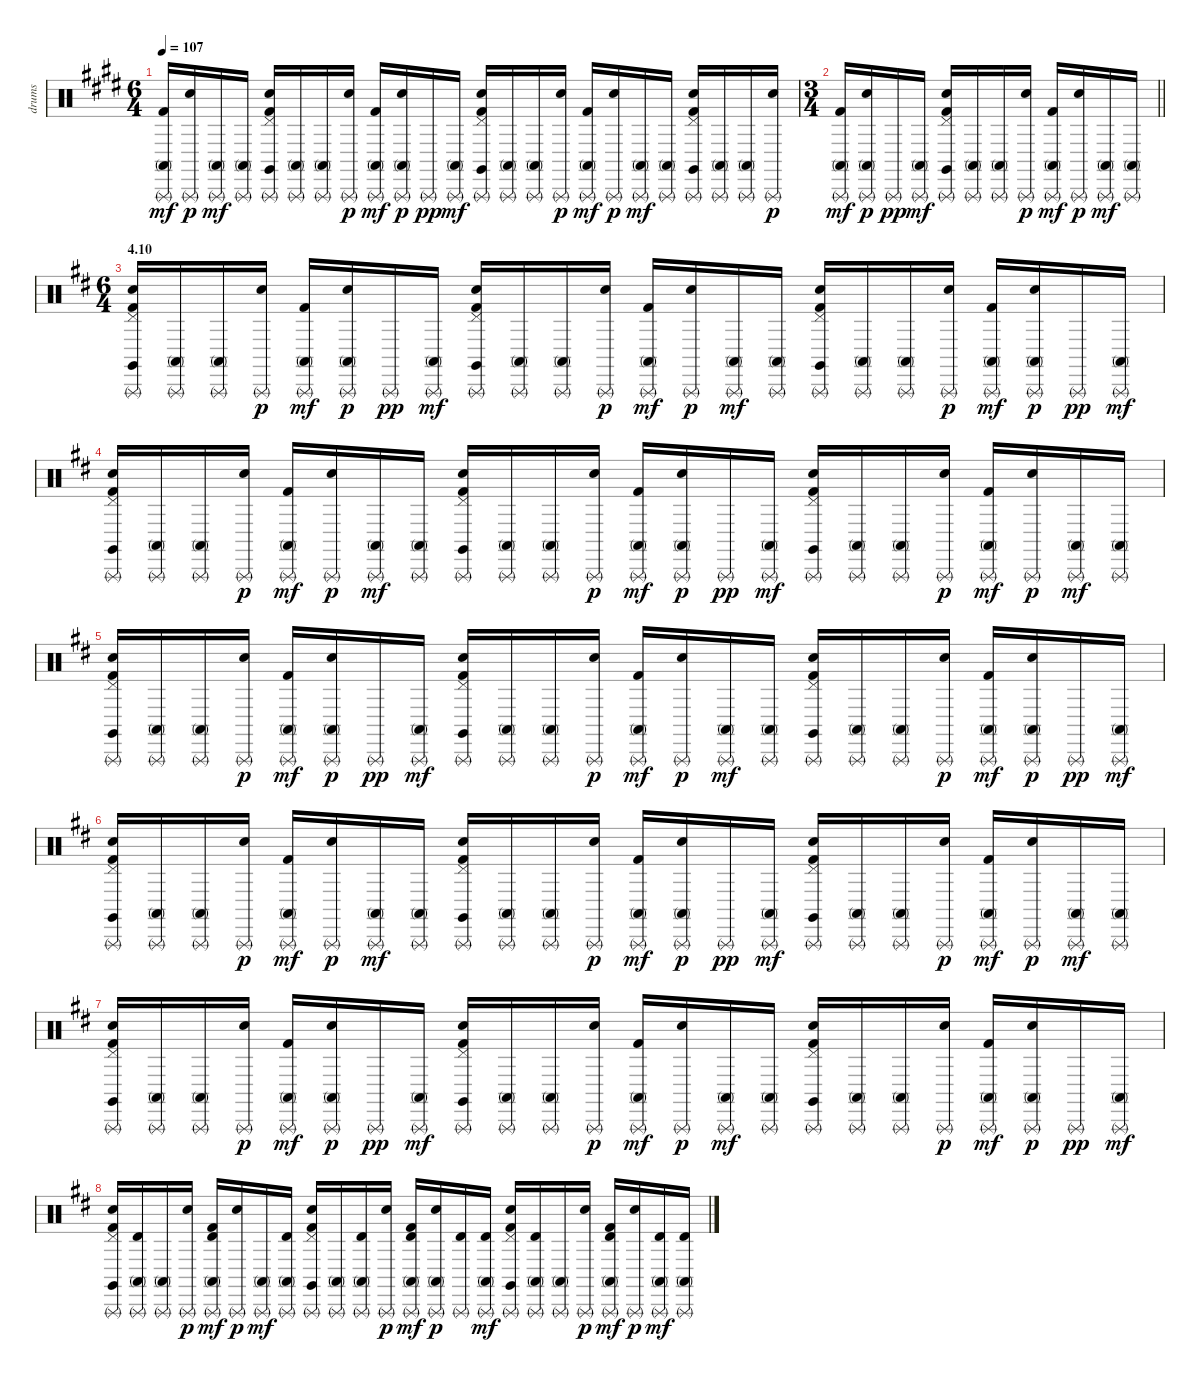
\track ("drums" "drums") {instrument percussion}
\staff {score}
\articulation defaults
\ts (6 4)
\tempo 107
\clef neutral
\ks e
("Triangle (rnute)" "Conga high (mute)" "Kick (hit) 2").16{dy mf} ("Triangle (rnute)" "Electric Snare (hit)").16{dy p} ("Triangle (rnute)" "Conga high (mute)").16{dy mf} ("Triangle (rnute)" "Conga high (mute)").16 ("Triangle (rnute)" "Claves (hit)" "Pedal Hi-Hat (hit)" "Electric Snare (hit)" "Kick (hit) 2").16 ("Triangle (rnute)" "Conga high (mute)").16 ("Triangle (rnute)" "Conga high (mute)").16 ("Triangle (rnute)" "Electric Snare (hit)").16{dy p} ("Triangle (rnute)" "Conga high (mute)" "Kick (hit) 2").16{dy mf} ("Triangle (rnute)" "Conga high (mute)" "Electric Snare (hit)").16{dy p} "Triangle (rnute)".16{dy pp} ("Triangle (rnute)" "Conga high (mute)").16{dy mf} ("Triangle (rnute)" "Claves (hit)" "Pedal Hi-Hat (hit)" "Electric Snare (hit)" "Kick (hit) 2").16 ("Triangle (rnute)" "Conga high (mute)").16 ("Triangle (rnute)" "Conga high (mute)").16 ("Triangle (rnute)" "Electric Snare (hit)").16{dy p} ("Triangle (rnute)" "Conga high (mute)" "Kick (hit) 2").16{dy mf} ("Triangle (rnute)" "Electric Snare (hit)").16{dy p} ("Triangle (rnute)" "Conga high (mute)").16{dy mf} ("Triangle (rnute)" "Conga high (mute)").16 ("Triangle (rnute)" "Claves (hit)" "Pedal Hi-Hat (hit)" "Electric Snare (hit)" "Kick (hit) 2").16 ("Triangle (rnute)" "Conga high (mute)").16 ("Triangle (rnute)" "Conga high (mute)").16 ("Triangle (rnute)" "Electric Snare (hit)").16{dy p} |
\ts (3 4)
\barLineRight lightlight
("Triangle (rnute)" "Conga high (mute)" "Kick (hit) 2").16{dy mf} ("Triangle (rnute)" "Conga high (mute)" "Electric Snare (hit)").16{dy p} "Triangle (rnute)".16{dy pp} ("Triangle (rnute)" "Conga high (mute)").16{dy mf} ("Triangle (rnute)" "Claves (hit)" "Pedal Hi-Hat (hit)" "Electric Snare (hit)" "Kick (hit) 2").16 ("Triangle (rnute)" "Conga high (mute)").16 ("Triangle (rnute)" "Conga high (mute)").16 ("Triangle (rnute)" "Electric Snare (hit)").16{dy p} ("Triangle (rnute)" "Conga high (mute)" "Kick (hit) 2").16{dy mf} ("Triangle (rnute)" "Electric Snare (hit)").16{dy p} ("Triangle (rnute)" "Conga high (mute)").16{dy mf} ("Triangle (rnute)" "Conga high (mute)").16 |
\ts (6 4)
\section ("" "4.10")
\ks d
("Triangle (rnute)" "Claves (hit)" "Pedal Hi-Hat (hit)" "Electric Snare (hit)" "Kick (hit) 2").16 ("Triangle (rnute)" "Conga high (mute)").16 ("Triangle (rnute)" "Conga high (mute)").16 ("Triangle (rnute)" "Electric Snare (hit)").16{dy p} ("Triangle (rnute)" "Conga high (mute)" "Kick (hit) 2").16{dy mf} ("Triangle (rnute)" "Conga high (mute)" "Electric Snare (hit)").16{dy p} "Triangle (rnute)".16{dy pp} ("Triangle (rnute)" "Conga high (mute)").16{dy mf} ("Triangle (rnute)" "Claves (hit)" "Pedal Hi-Hat (hit)" "Electric Snare (hit)" "Kick (hit) 2").16 ("Triangle (rnute)" "Conga high (mute)").16 ("Triangle (rnute)" "Conga high (mute)").16 ("Triangle (rnute)" "Electric Snare (hit)").16{dy p} ("Triangle (rnute)" "Conga high (mute)" "Kick (hit) 2").16{dy mf} ("Triangle (rnute)" "Electric Snare (hit)").16{dy p} ("Triangle (rnute)" "Conga high (mute)").16{dy mf} ("Triangle (rnute)" "Conga high (mute)").16 ("Triangle (rnute)" "Claves (hit)" "Pedal Hi-Hat (hit)" "Electric Snare (hit)" "Kick (hit) 2").16 ("Triangle (rnute)" "Conga high (mute)").16 ("Triangle (rnute)" "Conga high (mute)").16 ("Triangle (rnute)" "Electric Snare (hit)").16{dy p} ("Triangle (rnute)" "Conga high (mute)" "Kick (hit) 2").16{dy mf} ("Triangle (rnute)" "Conga high (mute)" "Electric Snare (hit)").16{dy p} "Triangle (rnute)".16{dy pp} ("Triangle (rnute)" "Conga high (mute)").16{dy mf} |
("Triangle (rnute)" "Claves (hit)" "Pedal Hi-Hat (hit)" "Electric Snare (hit)" "Kick (hit) 2").16 ("Triangle (rnute)" "Conga high (mute)").16 ("Triangle (rnute)" "Conga high (mute)").16 ("Triangle (rnute)" "Electric Snare (hit)").16{dy p} ("Triangle (rnute)" "Conga high (mute)" "Kick (hit) 2").16{dy mf} ("Triangle (rnute)" "Electric Snare (hit)").16{dy p} ("Triangle (rnute)" "Conga high (mute)").16{dy mf} ("Triangle (rnute)" "Conga high (mute)").16 ("Triangle (rnute)" "Claves (hit)" "Pedal Hi-Hat (hit)" "Electric Snare (hit)" "Kick (hit) 2").16 ("Triangle (rnute)" "Conga high (mute)").16 ("Triangle (rnute)" "Conga high (mute)").16 ("Triangle (rnute)" "Electric Snare (hit)").16{dy p} ("Triangle (rnute)" "Conga high (mute)" "Kick (hit) 2").16{dy mf} ("Triangle (rnute)" "Conga high (mute)" "Electric Snare (hit)").16{dy p} "Triangle (rnute)".16{dy pp} ("Triangle (rnute)" "Conga high (mute)").16{dy mf} ("Triangle (rnute)" "Claves (hit)" "Pedal Hi-Hat (hit)" "Electric Snare (hit)" "Kick (hit) 2").16 ("Triangle (rnute)" "Conga high (mute)").16 ("Triangle (rnute)" "Conga high (mute)").16 ("Triangle (rnute)" "Electric Snare (hit)").16{dy p} ("Triangle (rnute)" "Conga high (mute)" "Kick (hit) 2").16{dy mf} ("Triangle (rnute)" "Electric Snare (hit)").16{dy p} ("Triangle (rnute)" "Conga high (mute)").16{dy mf} ("Triangle (rnute)" "Conga high (mute)").16 |
("Triangle (rnute)" "Claves (hit)" "Pedal Hi-Hat (hit)" "Electric Snare (hit)" "Kick (hit) 2").16 ("Triangle (rnute)" "Conga high (mute)").16 ("Triangle (rnute)" "Conga high (mute)").16 ("Triangle (rnute)" "Electric Snare (hit)").16{dy p} ("Triangle (rnute)" "Conga high (mute)" "Kick (hit) 2").16{dy mf} ("Triangle (rnute)" "Conga high (mute)" "Electric Snare (hit)").16{dy p} "Triangle (rnute)".16{dy pp} ("Triangle (rnute)" "Conga high (mute)").16{dy mf} ("Triangle (rnute)" "Claves (hit)" "Pedal Hi-Hat (hit)" "Electric Snare (hit)" "Kick (hit) 2").16 ("Triangle (rnute)" "Conga high (mute)").16 ("Triangle (rnute)" "Conga high (mute)").16 ("Triangle (rnute)" "Electric Snare (hit)").16{dy p} ("Triangle (rnute)" "Conga high (mute)" "Kick (hit) 2").16{dy mf} ("Triangle (rnute)" "Electric Snare (hit)").16{dy p} ("Triangle (rnute)" "Conga high (mute)").16{dy mf} ("Triangle (rnute)" "Conga high (mute)").16 ("Triangle (rnute)" "Claves (hit)" "Pedal Hi-Hat (hit)" "Electric Snare (hit)" "Kick (hit) 2").16 ("Triangle (rnute)" "Conga high (mute)").16 ("Triangle (rnute)" "Conga high (mute)").16 ("Triangle (rnute)" "Electric Snare (hit)").16{dy p} ("Triangle (rnute)" "Conga high (mute)" "Kick (hit) 2").16{dy mf} ("Triangle (rnute)" "Conga high (mute)" "Electric Snare (hit)").16{dy p} "Triangle (rnute)".16{dy pp} ("Triangle (rnute)" "Conga high (mute)").16{dy mf} |
("Triangle (rnute)" "Claves (hit)" "Pedal Hi-Hat (hit)" "Electric Snare (hit)" "Kick (hit) 2").16 ("Triangle (rnute)" "Conga high (mute)").16 ("Triangle (rnute)" "Conga high (mute)").16 ("Triangle (rnute)" "Electric Snare (hit)").16{dy p} ("Triangle (rnute)" "Conga high (mute)" "Kick (hit) 2").16{dy mf} ("Triangle (rnute)" "Electric Snare (hit)").16{dy p} ("Triangle (rnute)" "Conga high (mute)").16{dy mf} ("Triangle (rnute)" "Conga high (mute)").16 ("Triangle (rnute)" "Claves (hit)" "Pedal Hi-Hat (hit)" "Electric Snare (hit)" "Kick (hit) 2").16 ("Triangle (rnute)" "Conga high (mute)").16 ("Triangle (rnute)" "Conga high (mute)").16 ("Triangle (rnute)" "Electric Snare (hit)").16{dy p} ("Triangle (rnute)" "Conga high (mute)" "Kick (hit) 2").16{dy mf} ("Triangle (rnute)" "Conga high (mute)" "Electric Snare (hit)").16{dy p} "Triangle (rnute)".16{dy pp} ("Triangle (rnute)" "Conga high (mute)").16{dy mf} ("Triangle (rnute)" "Claves (hit)" "Pedal Hi-Hat (hit)" "Electric Snare (hit)" "Kick (hit) 2").16 ("Triangle (rnute)" "Conga high (mute)").16 ("Triangle (rnute)" "Conga high (mute)").16 ("Triangle (rnute)" "Electric Snare (hit)").16{dy p} ("Triangle (rnute)" "Conga high (mute)" "Kick (hit) 2").16{dy mf} ("Triangle (rnute)" "Electric Snare (hit)").16{dy p} ("Triangle (rnute)" "Conga high (mute)").16{dy mf} ("Triangle (rnute)" "Conga high (mute)").16 |
("Triangle (rnute)" "Claves (hit)" "Pedal Hi-Hat (hit)" "Electric Snare (hit)" "Kick (hit) 2").16 ("Triangle (rnute)" "Conga high (mute)").16 ("Triangle (rnute)" "Conga high (mute)").16 ("Triangle (rnute)" "Electric Snare (hit)").16{dy p} ("Triangle (rnute)" "Conga high (mute)" "Kick (hit) 2").16{dy mf} ("Triangle (rnute)" "Conga high (mute)" "Electric Snare (hit)").16{dy p} "Triangle (rnute)".16{dy pp} ("Triangle (rnute)" "Conga high (mute)").16{dy mf} ("Triangle (rnute)" "Claves (hit)" "Pedal Hi-Hat (hit)" "Electric Snare (hit)" "Kick (hit) 2").16 ("Triangle (rnute)" "Conga high (mute)").16 ("Triangle (rnute)" "Conga high (mute)").16 ("Triangle (rnute)" "Electric Snare (hit)").16{dy p} ("Triangle (rnute)" "Conga high (mute)" "Kick (hit) 2").16{dy mf} ("Triangle (rnute)" "Electric Snare (hit)").16{dy p} ("Triangle (rnute)" "Conga high (mute)").16{dy mf} ("Triangle (rnute)" "Conga high (mute)").16 ("Triangle (rnute)" "Claves (hit)" "Pedal Hi-Hat (hit)" "Electric Snare (hit)" "Kick (hit) 2").16 ("Triangle (rnute)" "Conga high (mute)").16 ("Triangle (rnute)" "Conga high (mute)").16 ("Triangle (rnute)" "Electric Snare (hit)").16{dy p} ("Triangle (rnute)" "Conga high (mute)" "Kick (hit) 2").16{dy mf} ("Triangle (rnute)" "Conga high (mute)" "Electric Snare (hit)").16{dy p} "Triangle (rnute)".16{dy pp} ("Triangle (rnute)" "Conga high (mute)").16{dy mf} |
("Triangle (rnute)" "Claves (hit)" "Pedal Hi-Hat (hit)" "Electric Snare (hit)" "Kick (hit) 2").16 ("Triangle (rnute)" "Timbale high (hit)" "Conga high (mute)").16 ("Triangle (rnute)" "Conga high (mute)").16 ("Triangle (rnute)" "Electric Snare (hit)").16{dy p} ("Triangle (rnute)" "Timbale high (hit)" "Conga high (mute)" "Kick (hit) 2").16{dy mf} ("Triangle (rnute)" "Electric Snare (hit)").16{dy p} ("Triangle (rnute)" "Conga high (mute)").16{dy mf} ("Triangle (rnute)" "Timbale high (hit)" "Conga high (mute)").16 ("Triangle (rnute)" "Claves (hit)" "Pedal Hi-Hat (hit)" "Electric Snare (hit)" "Kick (hit) 2").16 ("Triangle (rnute)" "Conga high (mute)").16 ("Triangle (rnute)" "Timbale high (hit)" "Conga high (mute)").16 ("Triangle (rnute)" "Electric Snare (hit)").16{dy p} ("Triangle (rnute)" "Timbale high (hit)" "Conga high (mute)" "Kick (hit) 2").16{dy mf} ("Triangle (rnute)" "Conga high (mute)" "Electric Snare (hit)").16{dy p} ("Triangle (rnute)" "Timbale high (hit)").16 ("Triangle (rnute)" "Timbale high (hit)" "Conga high (mute)").16{dy mf} ("Triangle (rnute)" "Claves (hit)" "Pedal Hi-Hat (hit)" "Electric Snare (hit)" "Kick (hit) 2").16 ("Triangle (rnute)" "Timbale high (hit)" "Conga high (mute)").16 ("Triangle (rnute)" "Conga high (mute)").16 ("Triangle (rnute)" "Electric Snare (hit)").16{dy p} ("Triangle (rnute)" "Timbale high (hit)" "Conga high (mute)" "Kick (hit) 2").16{dy mf} ("Triangle (rnute)" "Electric Snare (hit)").16{dy p} ("Triangle (rnute)" "Timbale high (hit)" "Conga high (mute)").16{dy mf} ("Triangle (rnute)" "Timbale high (hit)" "Conga high (mute)").16
